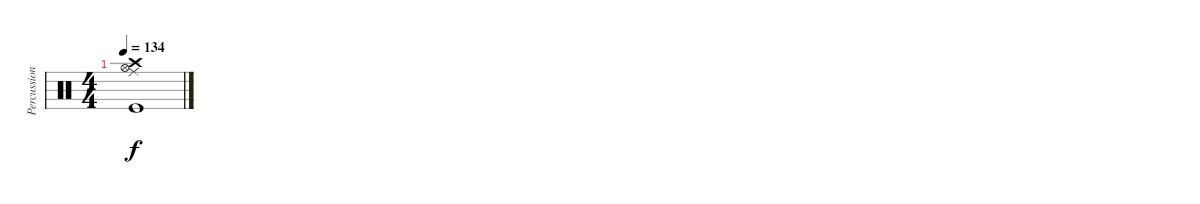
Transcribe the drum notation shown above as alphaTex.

\track ("Percussion" "Percussion") {instrument percussion}
\staff {score}
\articulation defaults
\ts (4 4)
\tempo 134
\clef neutral
\ks c
("Ride (middle)" "Crash high (hit)" "Hi-Hat (open)" "Kick (hit)").1{dy f}
